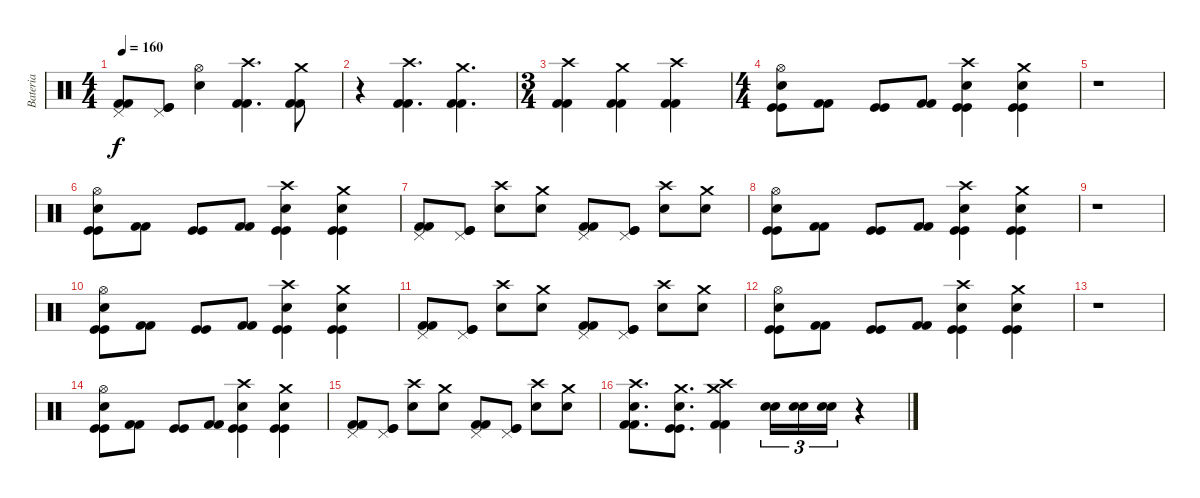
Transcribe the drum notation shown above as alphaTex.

\track ("Bateria" "Bateria") {instrument percussion}
\staff {score}
\articulation defaults
\ts (4 4)
\tempo 160
\clef neutral
\ks c
("Kick (hit) 2" "Kick (hit) 2" "Pedal Hi-Hat (hit)").8{dy f} ("Kick (hit)" "Kick (hit)" "Pedal Hi-Hat (hit)").8 ("Snare (hit) 2" "Hi-Hat (open)").4 ("Kick (hit) 2" "Kick (hit) 2" "Crash high (hit)").4{d} ("Kick (hit) 2" "Kick (hit) 2" "Crash medium (hit)").8 |
r.4 ("Kick (hit) 2" "Kick (hit) 2" "Crash high (hit)").4{d} ("Kick (hit) 2" "Kick (hit) 2" "Crash medium (hit)").4{d} |
\ts (3 4)
("Kick (hit) 2" "Kick (hit) 2" "Crash high (hit)").4 ("Kick (hit) 2" "Kick (hit) 2" "Crash medium (hit)").4 ("Kick (hit) 2" "Kick (hit) 2" "Crash high (hit)").4 |
\ts (4 4)
("Kick (hit)" "Kick (hit)" "Snare (hit) 2" "Hi-Hat (open)").8 ("Kick (hit) 2" "Kick (hit) 2").8 ("Kick (hit)" "Kick (hit)").8 ("Kick (hit) 2" "Kick (hit) 2").8 ("Kick (hit)" "Kick (hit)" "Snare (hit) 2" "Crash high (hit)").4 ("Kick (hit)" "Kick (hit)" "Snare (hit) 2" "Crash medium (hit)").4 |
r.1 |
("Kick (hit)" "Kick (hit)" "Snare (hit) 2" "Hi-Hat (open)").8 ("Kick (hit) 2" "Kick (hit) 2").8 ("Kick (hit)" "Kick (hit)").8 ("Kick (hit) 2" "Kick (hit) 2").8 ("Kick (hit)" "Kick (hit)" "Snare (hit) 2" "Crash high (hit)").4 ("Kick (hit)" "Kick (hit)" "Snare (hit) 2" "Crash medium (hit)").4 |
("Kick (hit) 2" "Kick (hit) 2" "Pedal Hi-Hat (hit)").8 ("Kick (hit)" "Kick (hit)" "Pedal Hi-Hat (hit)").8 ("Snare (hit) 2" "Crash high (hit)").8 ("Snare (hit) 2" "Crash medium (hit)").8 ("Kick (hit) 2" "Kick (hit) 2" "Pedal Hi-Hat (hit)").8 ("Kick (hit)" "Kick (hit)" "Pedal Hi-Hat (hit)").8 ("Snare (hit) 2" "Crash high (hit)").8 ("Snare (hit) 2" "Crash medium (hit)").8 |
("Kick (hit)" "Kick (hit)" "Snare (hit) 2" "Hi-Hat (open)").8 ("Kick (hit) 2" "Kick (hit) 2").8 ("Kick (hit)" "Kick (hit)").8 ("Kick (hit) 2" "Kick (hit) 2").8 ("Kick (hit)" "Kick (hit)" "Snare (hit) 2" "Crash high (hit)").4 ("Kick (hit)" "Kick (hit)" "Snare (hit) 2" "Crash medium (hit)").4 |
r.1 |
("Kick (hit)" "Kick (hit)" "Snare (hit) 2" "Hi-Hat (open)").8 ("Kick (hit) 2" "Kick (hit) 2").8 ("Kick (hit)" "Kick (hit)").8 ("Kick (hit) 2" "Kick (hit) 2").8 ("Kick (hit)" "Kick (hit)" "Snare (hit) 2" "Crash high (hit)").4 ("Kick (hit)" "Kick (hit)" "Snare (hit) 2" "Crash medium (hit)").4 |
("Kick (hit) 2" "Kick (hit) 2" "Pedal Hi-Hat (hit)").8 ("Kick (hit)" "Kick (hit)" "Pedal Hi-Hat (hit)").8 ("Snare (hit) 2" "Crash high (hit)").8 ("Snare (hit) 2" "Crash medium (hit)").8 ("Kick (hit) 2" "Kick (hit) 2" "Pedal Hi-Hat (hit)").8 ("Kick (hit)" "Kick (hit)" "Pedal Hi-Hat (hit)").8 ("Snare (hit) 2" "Crash high (hit)").8 ("Snare (hit) 2" "Crash medium (hit)").8 |
("Kick (hit)" "Kick (hit)" "Snare (hit) 2" "Hi-Hat (open)").8 ("Kick (hit) 2" "Kick (hit) 2").8 ("Kick (hit)" "Kick (hit)").8 ("Kick (hit) 2" "Kick (hit) 2").8 ("Kick (hit)" "Kick (hit)" "Snare (hit) 2" "Crash high (hit)").4 ("Kick (hit)" "Kick (hit)" "Snare (hit) 2" "Crash medium (hit)").4 |
r.1 |
("Kick (hit)" "Kick (hit)" "Snare (hit) 2" "Hi-Hat (open)").8 ("Kick (hit) 2" "Kick (hit) 2").8 ("Kick (hit)" "Kick (hit)").8 ("Kick (hit) 2" "Kick (hit) 2").8 ("Kick (hit)" "Kick (hit)" "Snare (hit) 2" "Crash high (hit)").4 ("Kick (hit)" "Kick (hit)" "Snare (hit) 2" "Crash medium (hit)").4 |
("Kick (hit) 2" "Kick (hit) 2" "Pedal Hi-Hat (hit)").8 ("Kick (hit)" "Kick (hit)" "Pedal Hi-Hat (hit)").8 ("Snare (hit) 2" "Crash high (hit)").8 ("Snare (hit) 2" "Crash medium (hit)").8 ("Kick (hit) 2" "Kick (hit) 2" "Pedal Hi-Hat (hit)").8 ("Kick (hit)" "Kick (hit)" "Pedal Hi-Hat (hit)").8 ("Snare (hit) 2" "Crash high (hit)").8 ("Snare (hit) 2" "Crash medium (hit)").8 |
("Kick (hit) 2" "Kick (hit) 2" "Snare (hit) 2" "Crash high (hit)").8{d} ("Kick (hit)" "Kick (hit)" "Snare (hit) 2" "Crash medium (hit)").8{d} ("Kick (hit) 2" "Kick (hit) 2" "Crash medium (hit)" "Crash high (hit)").4 ("Snare (hit) 2" "Snare (hit) 2").16{tu (3 2)} ("Snare (hit) 2" "Snare (hit) 2").16{tu (3 2)} ("Snare (hit) 2" "Snare (hit) 2").16{tu (3 2)} r.4
